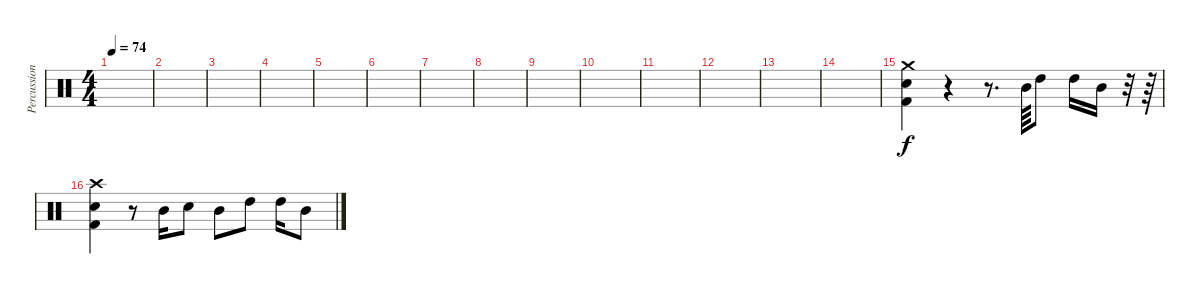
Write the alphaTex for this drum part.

\track ("Percussion" "Percussion") {instrument percussion}
\staff {score}
\articulation defaults
\ts (4 4)
\tempo 74
\clef neutral
\ks c
|
|
|
|
|
|
|
|
|
|
|
|
|
|
("Crash medium (hit)" "Snare (hit) 2" "Kick (hit) 2").4 r.4 r.8{d} "Mid Tom (hit)".64 "High Tom (hit)".8 "High Tom (hit)".16 "Mid Tom (hit)".16 r.32 r.64 |
("Crash high (hit)" "Snare (hit) 2" "Kick (hit) 2").4 r.8 "Mid Tom (hit)".16 "Snare (hit) 2".8 "Mid Tom (hit)".8 "High Tom (hit)".8 "High Tom (hit)".16 "Mid Tom (hit)".8
